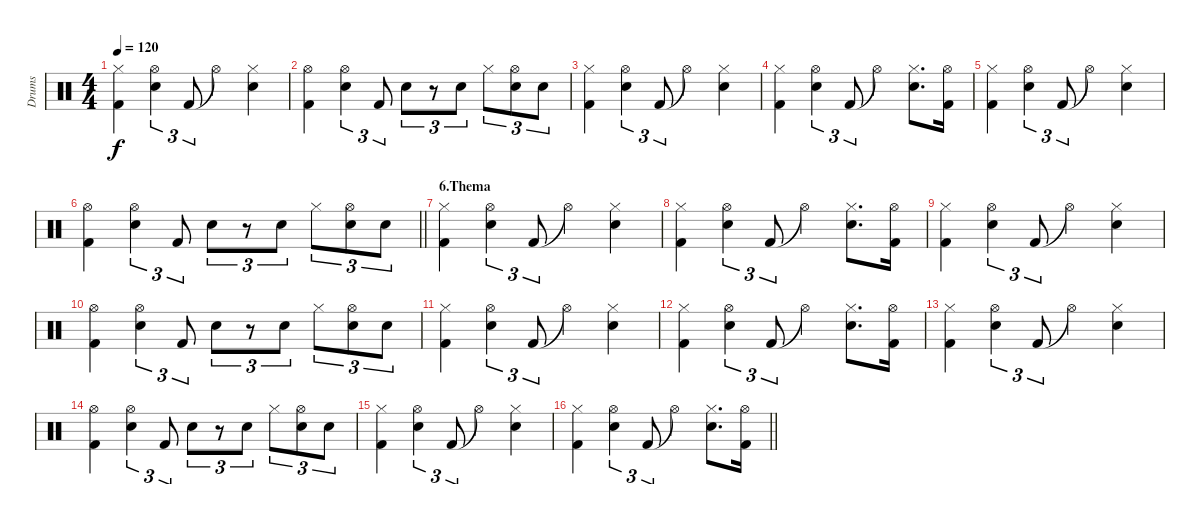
\track ("Drums" "Drums") {instrument percussion}
\staff {score}
\articulation defaults
\ts (4 4)
\tempo 120
\clef neutral
\ks c
("Hi-Hat (closed)" "Kick (hit) 2").4{dy f} ("Hi-Hat (open)" "Snare (hit) 2").4{tu (3 2)} "Kick (hit) 2".8{tu (3 2)} "Hi-Hat (open)"{t}.4 ("Hi-Hat (closed)" "Snare (hit) 2").4 |
("Hi-Hat (open)" "Kick (hit) 2").4 ("Hi-Hat (open)" "Snare (hit) 2").4{tu (3 2)} "Kick (hit) 2".8{tu (3 2)} "Snare (hit) 2".8{tu (3 2)} r.8{tu (3 2)} "Snare (hit) 2".8{tu (3 2)} "Hi-Hat (closed)".8{tu (3 2)} ("Hi-Hat (open)" "Snare (hit) 2").8{tu (3 2)} "Snare (hit) 2".8{tu (3 2)} |
("Hi-Hat (closed)" "Kick (hit) 2").4 ("Hi-Hat (open)" "Snare (hit) 2").4{tu (3 2)} "Kick (hit) 2".8{tu (3 2)} "Hi-Hat (open)"{t}.4 ("Hi-Hat (closed)" "Snare (hit) 2").4 |
("Hi-Hat (closed)" "Kick (hit) 2").4 ("Hi-Hat (open)" "Snare (hit) 2").4{tu (3 2)} "Kick (hit) 2".8{tu (3 2)} "Hi-Hat (open)"{t}.4 ("Hi-Hat (closed)" "Snare (hit) 2").8{d} ("Hi-Hat (open)" "Kick (hit) 2").16 |
("Hi-Hat (closed)" "Kick (hit) 2").4 ("Hi-Hat (open)" "Snare (hit) 2").4{tu (3 2)} "Kick (hit) 2".8{tu (3 2)} "Hi-Hat (open)"{t}.4 ("Hi-Hat (closed)" "Snare (hit) 2").4 |
\barLineRight lightlight
("Hi-Hat (open)" "Kick (hit) 2").4 ("Hi-Hat (open)" "Snare (hit) 2").4{tu (3 2)} "Kick (hit) 2".8{tu (3 2)} "Snare (hit) 2".8{tu (3 2)} r.8{tu (3 2)} "Snare (hit) 2".8{tu (3 2)} "Hi-Hat (closed)".8{tu (3 2)} ("Hi-Hat (open)" "Snare (hit) 2").8{tu (3 2)} "Snare (hit) 2".8{tu (3 2)} |
\section ("" "6.Thema")
("Hi-Hat (closed)" "Kick (hit) 2").4 ("Hi-Hat (open)" "Snare (hit) 2").4{tu (3 2)} "Kick (hit) 2".8{tu (3 2)} "Hi-Hat (open)"{t}.4 ("Hi-Hat (closed)" "Snare (hit) 2").4 |
("Hi-Hat (closed)" "Kick (hit) 2").4 ("Hi-Hat (open)" "Snare (hit) 2").4{tu (3 2)} "Kick (hit) 2".8{tu (3 2)} "Hi-Hat (open)"{t}.4 ("Hi-Hat (closed)" "Snare (hit) 2").8{d} ("Hi-Hat (open)" "Kick (hit) 2").16 |
("Hi-Hat (closed)" "Kick (hit) 2").4 ("Hi-Hat (open)" "Snare (hit) 2").4{tu (3 2)} "Kick (hit) 2".8{tu (3 2)} "Hi-Hat (open)"{t}.4 ("Hi-Hat (closed)" "Snare (hit) 2").4 |
("Hi-Hat (open)" "Kick (hit) 2").4 ("Hi-Hat (open)" "Snare (hit) 2").4{tu (3 2)} "Kick (hit) 2".8{tu (3 2)} "Snare (hit) 2".8{tu (3 2)} r.8{tu (3 2)} "Snare (hit) 2".8{tu (3 2)} "Hi-Hat (closed)".8{tu (3 2)} ("Hi-Hat (open)" "Snare (hit) 2").8{tu (3 2)} "Snare (hit) 2".8{tu (3 2)} |
("Hi-Hat (closed)" "Kick (hit) 2").4 ("Hi-Hat (open)" "Snare (hit) 2").4{tu (3 2)} "Kick (hit) 2".8{tu (3 2)} "Hi-Hat (open)"{t}.4 ("Hi-Hat (closed)" "Snare (hit) 2").4 |
("Hi-Hat (closed)" "Kick (hit) 2").4 ("Hi-Hat (open)" "Snare (hit) 2").4{tu (3 2)} "Kick (hit) 2".8{tu (3 2)} "Hi-Hat (open)"{t}.4 ("Hi-Hat (closed)" "Snare (hit) 2").8{d} ("Hi-Hat (open)" "Kick (hit) 2").16 |
("Hi-Hat (closed)" "Kick (hit) 2").4 ("Hi-Hat (open)" "Snare (hit) 2").4{tu (3 2)} "Kick (hit) 2".8{tu (3 2)} "Hi-Hat (open)"{t}.4 ("Hi-Hat (closed)" "Snare (hit) 2").4 |
("Hi-Hat (open)" "Kick (hit) 2").4 ("Hi-Hat (open)" "Snare (hit) 2").4{tu (3 2)} "Kick (hit) 2".8{tu (3 2)} "Snare (hit) 2".8{tu (3 2)} r.8{tu (3 2)} "Snare (hit) 2".8{tu (3 2)} "Hi-Hat (closed)".8{tu (3 2)} ("Hi-Hat (open)" "Snare (hit) 2").8{tu (3 2)} "Snare (hit) 2".8{tu (3 2)} |
("Hi-Hat (closed)" "Kick (hit) 2").4 ("Hi-Hat (open)" "Snare (hit) 2").4{tu (3 2)} "Kick (hit) 2".8{tu (3 2)} "Hi-Hat (open)"{t}.4 ("Hi-Hat (closed)" "Snare (hit) 2").4 |
\barLineRight lightlight
("Hi-Hat (closed)" "Kick (hit) 2").4 ("Hi-Hat (open)" "Snare (hit) 2").4{tu (3 2)} "Kick (hit) 2".8{tu (3 2)} "Hi-Hat (open)"{t}.4 ("Hi-Hat (closed)" "Snare (hit) 2").8{d} ("Hi-Hat (open)" "Kick (hit) 2").16
